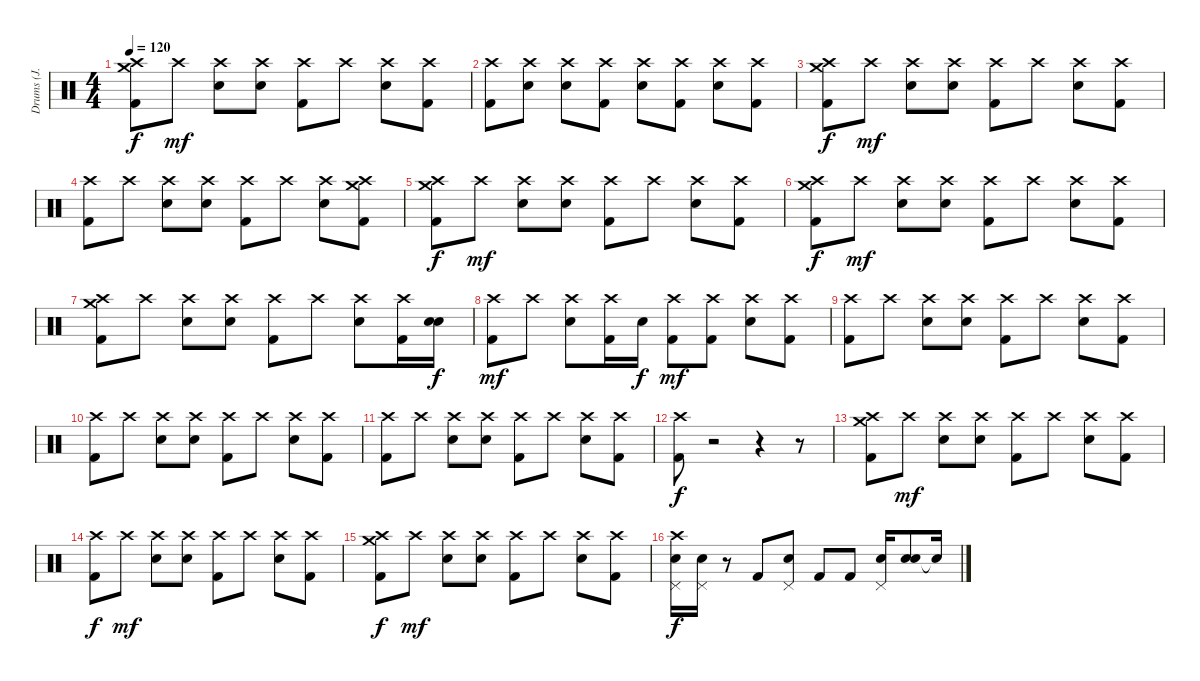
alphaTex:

\track ("Drums (J. Cramer)" "Drums (J. ") {instrument percussion}
\staff {score}
\articulation defaults
\ts (4 4)
\tempo 120
\clef neutral
\ks c
("Crash high (hit)" "Crash medium (hit)" "Kick (hit) 2").8{dy f balance 8} "Crash high (hit)".8{dy mf} ("Crash high (hit)" "Electric Snare (hit)").8 ("Crash high (hit)" "Electric Snare (hit)").8 ("Crash high (hit)" "Kick (hit) 2").8 "Crash high (hit)".8 ("Crash high (hit)" "Electric Snare (hit)").8 ("Crash high (hit)" "Kick (hit) 2").8 |
("Crash high (hit)" "Kick (hit) 2").8 ("Crash high (hit)" "Electric Snare (hit)").8 ("Crash high (hit)" "Electric Snare (hit)").8 ("Crash high (hit)" "Kick (hit) 2").8 ("Crash high (hit)" "Electric Snare (hit)").8 ("Crash high (hit)" "Kick (hit) 2").8 ("Crash high (hit)" "Electric Snare (hit)").8 ("Crash high (hit)" "Kick (hit) 2").8 |
("Crash high (hit)" "Crash medium (hit)" "Kick (hit) 2").8{dy f} "Crash high (hit)".8{dy mf} ("Crash high (hit)" "Electric Snare (hit)").8 ("Crash high (hit)" "Electric Snare (hit)").8 ("Crash high (hit)" "Kick (hit) 2").8 "Crash high (hit)".8 ("Crash high (hit)" "Electric Snare (hit)").8 ("Crash high (hit)" "Kick (hit) 2").8 |
("Crash high (hit)" "Kick (hit) 2").8 "Crash high (hit)".8 ("Crash high (hit)" "Electric Snare (hit)").8 ("Crash high (hit)" "Electric Snare (hit)").8 ("Crash high (hit)" "Kick (hit) 2").8 "Crash high (hit)".8 ("Crash high (hit)" "Electric Snare (hit)").8 ("Crash medium (hit)" "Crash high (hit)" "Kick (hit) 2").8 |
("Crash medium (hit)" "Crash high (hit)" "Kick (hit) 2").8{dy f} "Crash high (hit)".8{dy mf} ("Crash high (hit)" "Electric Snare (hit)").8 ("Crash high (hit)" "Electric Snare (hit)").8 ("Crash high (hit)" "Kick (hit) 2").8 "Crash high (hit)".8 ("Crash high (hit)" "Electric Snare (hit)").8 ("Crash high (hit)" "Kick (hit) 2").8 |
("Crash medium (hit)" "Crash high (hit)" "Kick (hit) 2").8{dy f} "Crash high (hit)".8{dy mf} ("Crash high (hit)" "Electric Snare (hit)").8 ("Crash high (hit)" "Electric Snare (hit)").8 ("Crash high (hit)" "Kick (hit) 2").8 "Crash high (hit)".8 ("Crash high (hit)" "Electric Snare (hit)").8 ("Crash high (hit)" "Kick (hit) 2").8 |
("Crash high (hit)" "Crash medium (hit)" "Kick (hit) 2").8 "Crash high (hit)".8 ("Crash high (hit)" "Electric Snare (hit)").8 ("Crash high (hit)" "Electric Snare (hit)").8 ("Crash high (hit)" "Kick (hit) 2").8 "Crash high (hit)".8 ("Crash high (hit)" "Electric Snare (hit)").8 ("Crash high (hit)" "Kick (hit) 2").16 ("Electric Snare (hit)" "Electric Snare (hit)").16{bd 240 dy f} |
("Crash high (hit)" "Kick (hit) 2").8{dy mf} "Crash high (hit)".8 ("Crash high (hit)" "Electric Snare (hit)").8 ("Crash high (hit)" "Kick (hit) 2").16 "Electric Snare (hit)".16{dy f} ("Crash high (hit)" "Kick (hit) 2").8{dy mf} ("Crash high (hit)" "Kick (hit) 2").8 ("Crash high (hit)" "Electric Snare (hit)").8 ("Crash high (hit)" "Kick (hit) 2").8 |
("Crash high (hit)" "Kick (hit) 2").8 "Crash high (hit)".8 ("Crash high (hit)" "Electric Snare (hit)").8 ("Crash high (hit)" "Electric Snare (hit)").8 ("Crash high (hit)" "Kick (hit) 2").8 "Crash high (hit)".8 ("Crash high (hit)" "Electric Snare (hit)").8 ("Crash high (hit)" "Kick (hit) 2").8 |
("Crash high (hit)" "Kick (hit) 2").8 "Crash high (hit)".8 ("Crash high (hit)" "Electric Snare (hit)").8 ("Crash high (hit)" "Electric Snare (hit)").8 ("Crash high (hit)" "Kick (hit) 2").8 "Crash high (hit)".8 ("Crash high (hit)" "Electric Snare (hit)").8 ("Crash high (hit)" "Kick (hit) 2").8 |
("Crash high (hit)" "Kick (hit) 2").8 "Crash high (hit)".8 ("Crash high (hit)" "Electric Snare (hit)").8 ("Crash high (hit)" "Electric Snare (hit)").8 ("Crash high (hit)" "Kick (hit) 2").8 "Crash high (hit)".8 ("Crash high (hit)" "Electric Snare (hit)").8 ("Crash high (hit)" "Kick (hit) 2").8 |
("Crash high (hit)" "Kick (hit) 2").8{dy f} r.2 r.4 r.8 |
("Crash high (hit)" "Crash medium (hit)" "Kick (hit) 2").8 "Crash high (hit)".8{dy mf} ("Crash high (hit)" "Electric Snare (hit)").8 ("Crash high (hit)" "Electric Snare (hit)").8 ("Crash high (hit)" "Kick (hit) 2").8 "Crash high (hit)".8 ("Crash high (hit)" "Electric Snare (hit)").8 ("Crash high (hit)" "Kick (hit) 2").8 |
("Crash high (hit)" "Kick (hit) 2").8{dy f} "Crash high (hit)".8{dy mf} ("Crash high (hit)" "Electric Snare (hit)").8 ("Crash high (hit)" "Electric Snare (hit)").8 ("Crash high (hit)" "Kick (hit) 2").8 "Crash high (hit)".8 ("Crash high (hit)" "Electric Snare (hit)").8 ("Crash high (hit)" "Kick (hit) 2").8 |
("Crash high (hit)" "Crash medium (hit)" "Kick (hit) 2").8{dy f} "Crash high (hit)".8{dy mf} ("Crash high (hit)" "Electric Snare (hit)").8 ("Crash high (hit)" "Electric Snare (hit)").8 ("Crash high (hit)" "Kick (hit) 2").8 "Crash high (hit)".8 ("Crash high (hit)" "Electric Snare (hit)").8 ("Crash high (hit)" "Kick (hit) 2").8 |
("Crash high (hit)" "Pedal Hi-Hat (hit)" "Electric Snare (hit)").16{dy f} ("Pedal Hi-Hat (hit)" "Electric Snare (hit)").16 r.8 "Kick (hit) 2".8 ("Pedal Hi-Hat (hit)" "Electric Snare (hit)").8 "Kick (hit) 2".8 "Kick (hit) 2".8 ("Pedal Hi-Hat (hit)" "Electric Snare (hit)").16 ("Snare (hit)" "Electric Snare (hit)").8 "Snare (hit)"{t}.16
